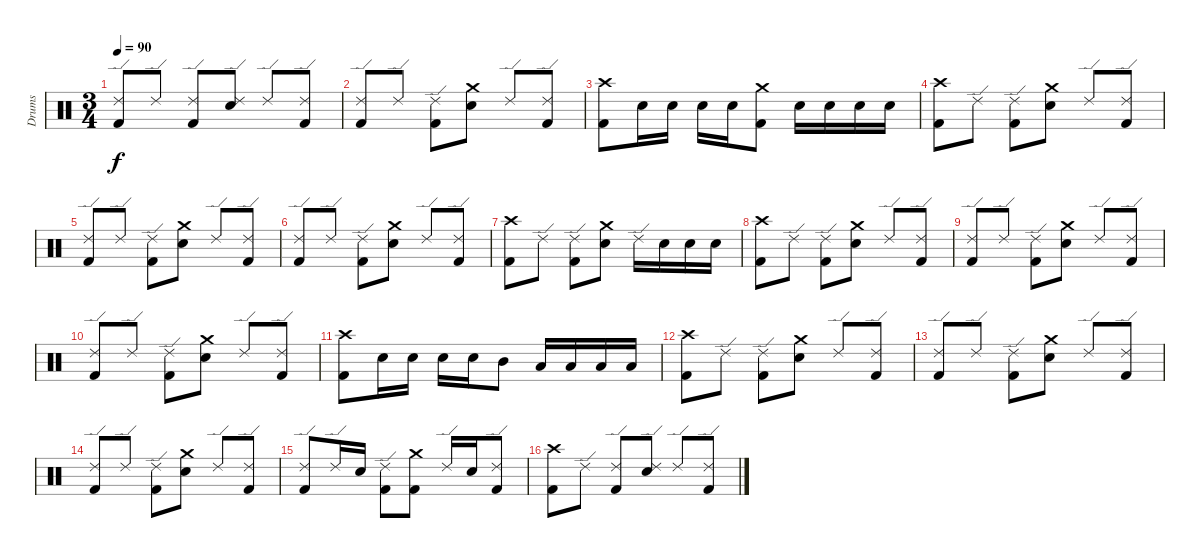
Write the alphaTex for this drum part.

\track ("Drums" "Drums") {instrument percussion}
\staff {score}
\articulation defaults
\ts (3 4)
\tempo 90
\clef neutral
\ks c
("Ride (edge) 2" "Kick (hit) 2").8{dy f} "Ride (edge) 2".8 ("Ride (edge) 2" "Kick (hit) 2").8 ("Ride (edge) 2" "Electric Snare (hit)").8 "Ride (edge) 2".8 ("Ride (edge) 2" "Kick (hit) 2").8 |
("Ride (edge) 2" "Kick (hit) 2").8 "Ride (edge) 2".8 ("Ride (edge) 2" "Kick (hit) 2").8 ("Crash medium (hit)" "Electric Snare (hit)").8 "Ride (edge) 2".8 ("Ride (edge) 2" "Kick (hit) 2").8 |
("Crash high (hit)" "Kick (hit) 2").8 "Electric Snare (hit)".16 "Electric Snare (hit)".16 "Electric Snare (hit)".16 "Electric Snare (hit)".16 ("Crash medium (hit)" "Kick (hit) 2").8 "Electric Snare (hit)".16 "Electric Snare (hit)".16 "Electric Snare (hit)".16 "Electric Snare (hit)".16 |
("Crash high (hit)" "Kick (hit) 2").8 "Ride (edge) 2".8 ("Ride (edge) 2" "Kick (hit) 2").8 ("Crash medium (hit)" "Electric Snare (hit)").8 "Ride (edge) 2".8 ("Ride (edge) 2" "Kick (hit) 2").8 |
("Ride (edge) 2" "Kick (hit) 2").8 "Ride (edge) 2".8 ("Ride (edge) 2" "Kick (hit) 2").8 ("Crash medium (hit)" "Electric Snare (hit)").8 "Ride (edge) 2".8 ("Ride (edge) 2" "Kick (hit) 2").8 |
("Ride (edge) 2" "Kick (hit) 2").8 "Ride (edge) 2".8 ("Ride (edge) 2" "Kick (hit) 2").8 ("Crash medium (hit)" "Electric Snare (hit)").8 "Ride (edge) 2".8 ("Ride (edge) 2" "Kick (hit) 2").8 |
("Crash high (hit)" "Kick (hit) 2").8 "Ride (edge) 2".8 ("Ride (edge) 2" "Kick (hit) 2").8 ("Crash medium (hit)" "Electric Snare (hit)").8 "Ride (edge) 2".16 "Electric Snare (hit)".16 "Electric Snare (hit)".16 "Electric Snare (hit)".16 |
("Crash high (hit)" "Kick (hit) 2").8 "Ride (edge) 2".8 ("Ride (edge) 2" "Kick (hit) 2").8 ("Crash medium (hit)" "Electric Snare (hit)").8 "Ride (edge) 2".8 ("Ride (edge) 2" "Kick (hit) 2").8 |
("Ride (edge) 2" "Kick (hit) 2").8 "Ride (edge) 2".8 ("Ride (edge) 2" "Kick (hit) 2").8 ("Crash medium (hit)" "Electric Snare (hit)").8 "Ride (edge) 2".8 ("Ride (edge) 2" "Kick (hit) 2").8 |
("Ride (edge) 2" "Kick (hit) 2").8 "Ride (edge) 2".8 ("Ride (edge) 2" "Kick (hit) 2").8 ("Crash medium (hit)" "Electric Snare (hit)").8 "Ride (edge) 2".8 ("Ride (edge) 2" "Kick (hit) 2").8 |
("Crash high (hit)" "Kick (hit) 2").8 "Electric Snare (hit)".16 "Electric Snare (hit)".16 "Electric Snare (hit)".16 "Electric Snare (hit)".16 "Mid Tom (hit)".8 "Low Tom (hit)".16 "Low Tom (hit)".16 "Low Tom (hit)".16 "Low Tom (hit)".16 |
("Crash high (hit)" "Kick (hit) 2").8 "Ride (edge) 2".8 ("Ride (edge) 2" "Kick (hit) 2").8 ("Crash medium (hit)" "Electric Snare (hit)").8 "Ride (edge) 2".8 ("Ride (edge) 2" "Kick (hit) 2").8 |
("Ride (edge) 2" "Kick (hit) 2").8 "Ride (edge) 2".8 ("Ride (edge) 2" "Kick (hit) 2").8 ("Crash medium (hit)" "Electric Snare (hit)").8 "Ride (edge) 2".8 ("Ride (edge) 2" "Kick (hit) 2").8 |
("Ride (edge) 2" "Kick (hit) 2").8 "Ride (edge) 2".8 ("Ride (edge) 2" "Kick (hit) 2").8 ("Crash medium (hit)" "Electric Snare (hit)").8 "Ride (edge) 2".8 ("Ride (edge) 2" "Kick (hit) 2").8 |
("Ride (edge) 2" "Kick (hit) 2").8 "Ride (edge) 2".16 "Electric Snare (hit)".16 ("Ride (edge) 2" "Kick (hit) 2").8 ("Crash medium (hit)" "Kick (hit) 2").8 "Ride (edge) 2".16 "Electric Snare (hit)".16 ("Ride (edge) 2" "Kick (hit) 2").8 |
("Crash high (hit)" "Kick (hit) 2").8 "Ride (edge) 2".8 ("Ride (edge) 2" "Kick (hit) 2").8 ("Ride (edge) 2" "Electric Snare (hit)").8 "Ride (edge) 2".8 ("Ride (edge) 2" "Kick (hit) 2").8
